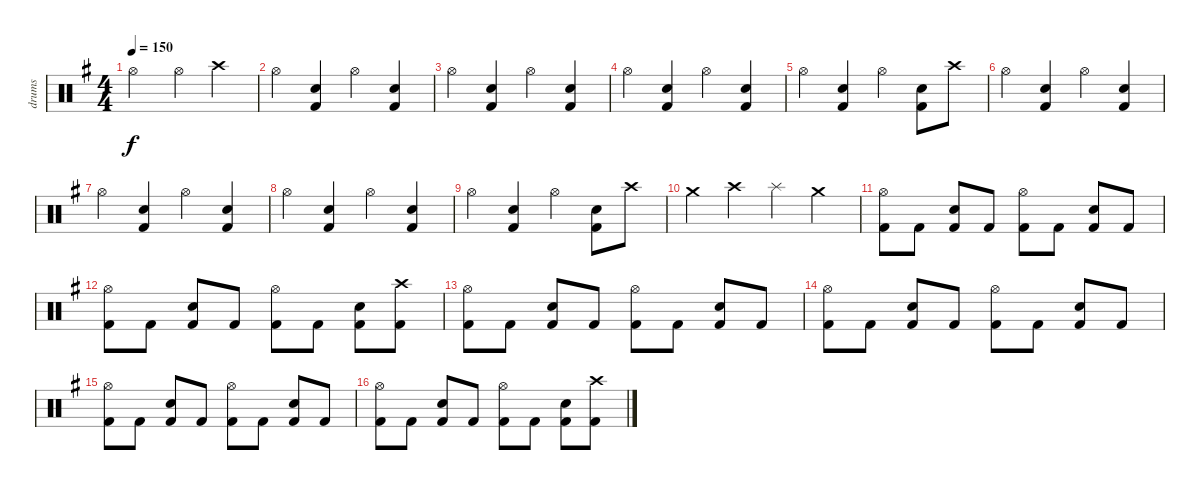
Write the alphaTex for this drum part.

\track ("drums" "drums") {instrument percussion}
\staff {score}
\articulation defaults
\ts (4 4)
\tempo 150
\clef neutral
\ks g "Hi-Hat (open)".2{dy f} "Hi-Hat (open)".4 "Crash high (hit)".4
|
"Hi-Hat (open)".4 ("Electric Snare (hit)" "Kick (hit) 2").4 "Hi-Hat (open)".4 ("Electric Snare (hit)" "Kick (hit) 2").4 |
"Hi-Hat (open)".4 ("Electric Snare (hit)" "Kick (hit) 2").4 "Hi-Hat (open)".4 ("Electric Snare (hit)" "Kick (hit) 2").4 |
"Hi-Hat (open)".4 ("Electric Snare (hit)" "Kick (hit) 2").4 "Hi-Hat (open)".4 ("Electric Snare (hit)" "Kick (hit) 2").4 |
"Hi-Hat (open)".4 ("Electric Snare (hit)" "Kick (hit) 2").4 "Hi-Hat (open)".4 ("Electric Snare (hit)" "Kick (hit) 2").8 "Crash high (hit)".8 |
"Hi-Hat (open)".4 ("Electric Snare (hit)" "Kick (hit) 2").4 "Hi-Hat (open)".4 ("Electric Snare (hit)" "Kick (hit) 2").4 |
"Hi-Hat (open)".4 ("Electric Snare (hit)" "Kick (hit) 2").4 "Hi-Hat (open)".4 ("Electric Snare (hit)" "Kick (hit) 2").4 |
"Hi-Hat (open)".4 ("Electric Snare (hit)" "Kick (hit) 2").4 "Hi-Hat (open)".4 ("Electric Snare (hit)" "Kick (hit) 2").4 |
"Hi-Hat (open)".4 ("Electric Snare (hit)" "Kick (hit) 2").4 "Hi-Hat (open)".4 ("Electric Snare (hit)" "Kick (hit) 2").8 "Crash high (hit)".8 |
"Crash medium (hit)".4 "Crash high (hit)".4 "Splash (hit)".4 "Crash medium (hit)".4 |
("Hi-Hat (open)" "Kick (hit) 2").8 "Kick (hit) 2".8 ("Electric Snare (hit)" "Kick (hit) 2").8 "Kick (hit) 2".8 ("Hi-Hat (open)" "Kick (hit) 2").8 "Kick (hit) 2".8 ("Electric Snare (hit)" "Kick (hit) 2").8 "Kick (hit) 2".8 |
("Hi-Hat (open)" "Kick (hit) 2").8 "Kick (hit) 2".8 ("Electric Snare (hit)" "Kick (hit) 2").8 "Kick (hit) 2".8 ("Hi-Hat (open)" "Kick (hit) 2").8 "Kick (hit) 2".8 ("Electric Snare (hit)" "Kick (hit) 2").8 ("Crash high (hit)" "Kick (hit) 2").8 |
("Hi-Hat (open)" "Kick (hit) 2").8 "Kick (hit) 2".8 ("Electric Snare (hit)" "Kick (hit) 2").8 "Kick (hit) 2".8 ("Hi-Hat (open)" "Kick (hit) 2").8 "Kick (hit) 2".8 ("Electric Snare (hit)" "Kick (hit) 2").8 "Kick (hit) 2".8 |
("Hi-Hat (open)" "Kick (hit) 2").8 "Kick (hit) 2".8 ("Electric Snare (hit)" "Kick (hit) 2").8 "Kick (hit) 2".8 ("Hi-Hat (open)" "Kick (hit) 2").8 "Kick (hit) 2".8 ("Electric Snare (hit)" "Kick (hit) 2").8 "Kick (hit) 2".8 |
("Hi-Hat (open)" "Kick (hit) 2").8 "Kick (hit) 2".8 ("Electric Snare (hit)" "Kick (hit) 2").8 "Kick (hit) 2".8 ("Hi-Hat (open)" "Kick (hit) 2").8 "Kick (hit) 2".8 ("Electric Snare (hit)" "Kick (hit) 2").8 "Kick (hit) 2".8 |
("Hi-Hat (open)" "Kick (hit) 2").8 "Kick (hit) 2".8 ("Electric Snare (hit)" "Kick (hit) 2").8 "Kick (hit) 2".8 ("Hi-Hat (open)" "Kick (hit) 2").8 "Kick (hit) 2".8 ("Electric Snare (hit)" "Kick (hit) 2").8 ("Crash high (hit)" "Kick (hit) 2").8
